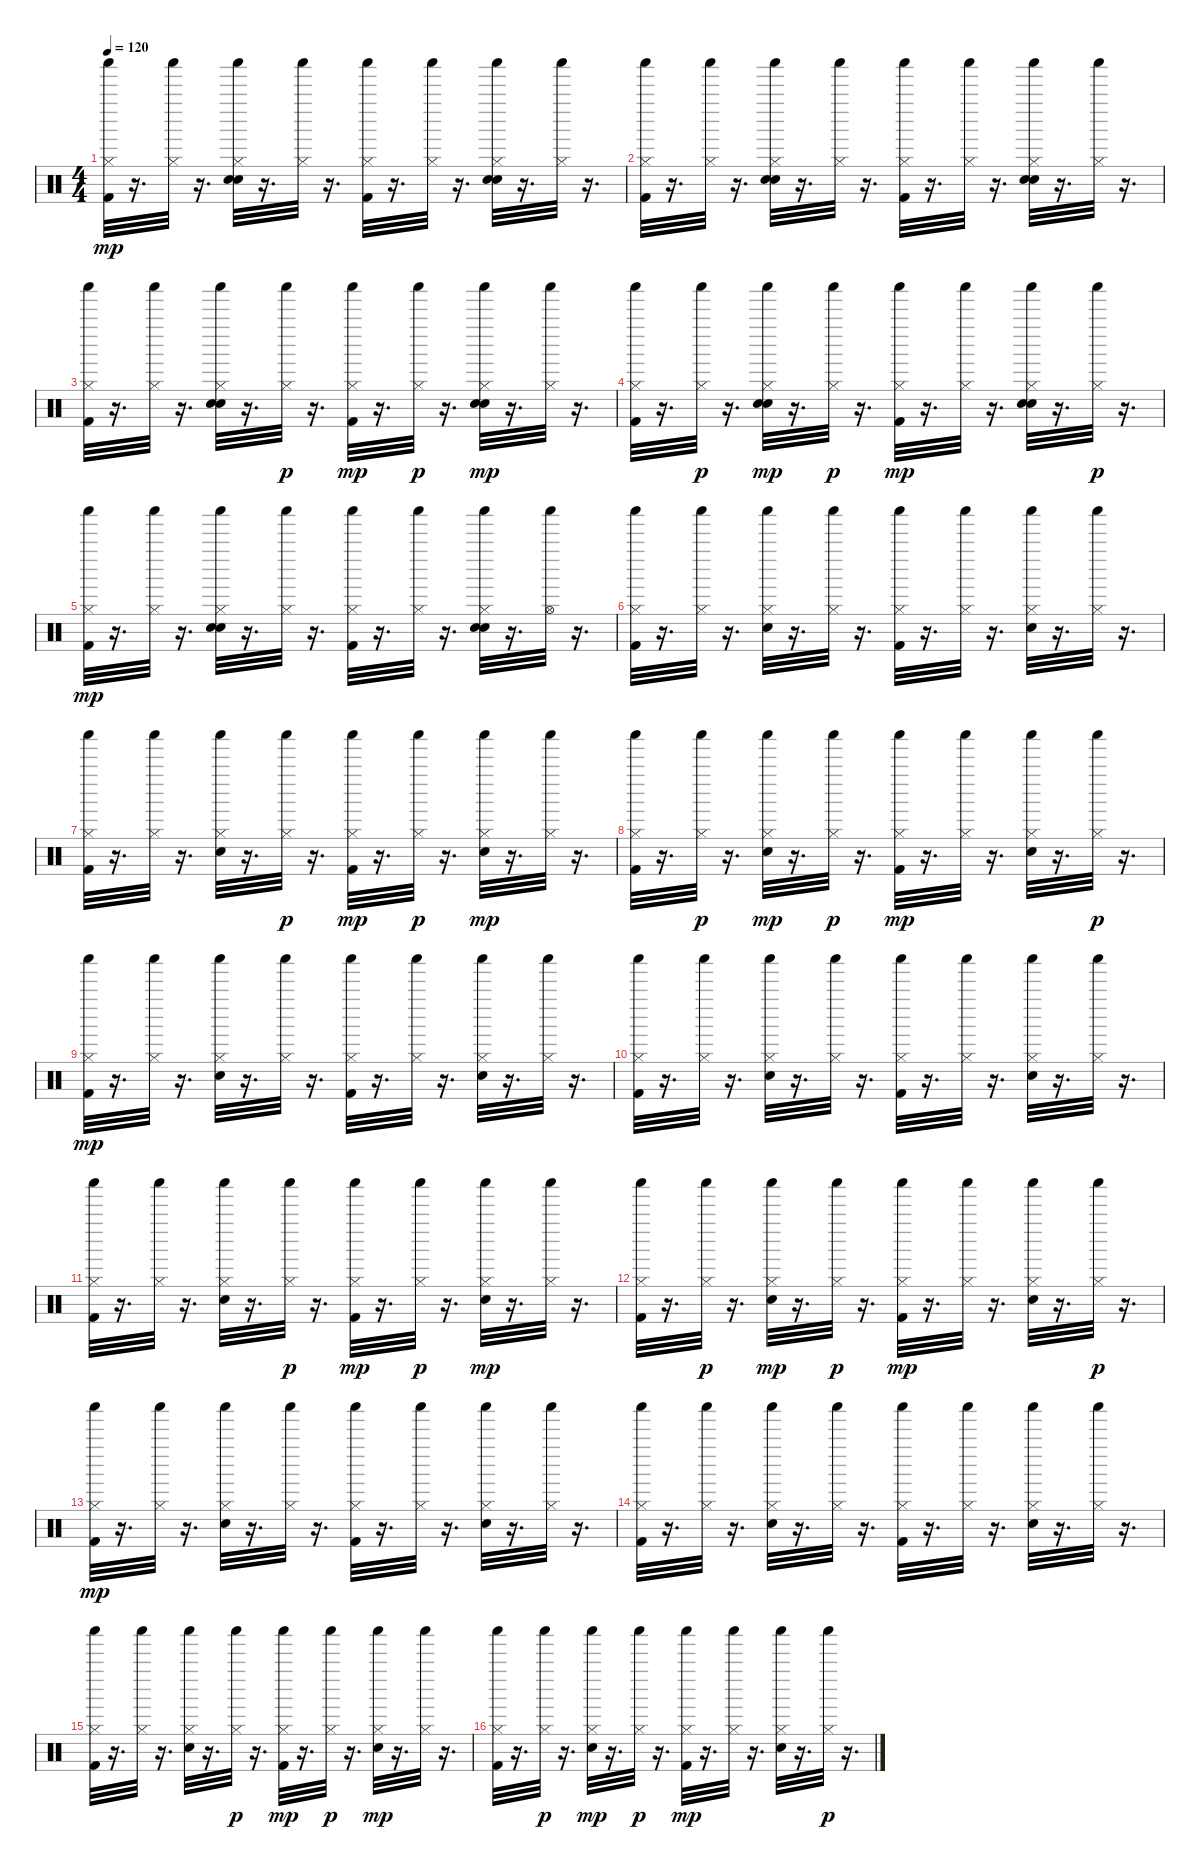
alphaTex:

\track "" {instrument percussion}
\staff {score}
\articulation defaults
\ts (4 4)
\tempo 120
\clef neutral
\ks c
("Kick (hit) 2" "Hi-Hat (closed)" "Shaker (hit)").32{dy mp} r.16{d} ("Hi-Hat (closed)" "Shaker (hit)").32 r.16{d} ("Hand Clap (hit)" "Electric Snare (hit)" "Hi-Hat (closed)" "Shaker (hit)").32 r.16{d} ("Hi-Hat (closed)" "Shaker (hit)").32 r.16{d} ("Kick (hit) 2" "Hi-Hat (closed)" "Shaker (hit)").32 r.16{d} ("Hi-Hat (closed)" "Shaker (hit)").32 r.16{d} ("Hand Clap (hit)" "Electric Snare (hit)" "Hi-Hat (closed)" "Shaker (hit)").32 r.16{d} ("Hi-Hat (closed)" "Shaker (hit)").32 r.16{d} |
("Kick (hit) 2" "Hi-Hat (closed)" "Shaker (hit)").32 r.16{d} ("Hi-Hat (closed)" "Shaker (hit)").32 r.16{d} ("Hand Clap (hit)" "Electric Snare (hit)" "Hi-Hat (closed)" "Shaker (hit)").32 r.16{d} ("Hi-Hat (closed)" "Shaker (hit)").32 r.16{d} ("Kick (hit) 2" "Hi-Hat (closed)" "Shaker (hit)").32 r.16{d} ("Hi-Hat (closed)" "Shaker (hit)").32 r.16{d} ("Hand Clap (hit)" "Electric Snare (hit)" "Hi-Hat (closed)" "Shaker (hit)").32 r.16{d} ("Hi-Hat (closed)" "Shaker (hit)").32 r.16{d} |
("Kick (hit) 2" "Hi-Hat (closed)" "Shaker (hit)").32 r.16{d} ("Hi-Hat (closed)" "Shaker (hit)").32 r.16{d} ("Hand Clap (hit)" "Electric Snare (hit)" "Hi-Hat (closed)" "Shaker (hit)").32 r.16{d} ("Hi-Hat (closed)" "Shaker (hit)").32{dy p} r.16{d} ("Kick (hit) 2" "Hi-Hat (closed)" "Shaker (hit)").32{dy mp} r.16{d} ("Hi-Hat (closed)" "Shaker (hit)").32{dy p} r.16{d} ("Hand Clap (hit)" "Electric Snare (hit)" "Hi-Hat (closed)" "Shaker (hit)").32{dy mp} r.16{d} ("Hi-Hat (closed)" "Shaker (hit)").32 r.16{d} |
("Kick (hit) 2" "Hi-Hat (closed)" "Shaker (hit)").32 r.16{d} ("Hi-Hat (closed)" "Shaker (hit)").32{dy p} r.16{d} ("Hand Clap (hit)" "Electric Snare (hit)" "Hi-Hat (closed)" "Shaker (hit)").32{dy mp} r.16{d} ("Hi-Hat (closed)" "Shaker (hit)").32{dy p} r.16{d} ("Kick (hit) 2" "Hi-Hat (closed)" "Shaker (hit)").32{dy mp} r.16{d} ("Hi-Hat (closed)" "Shaker (hit)").32 r.16{d} ("Hand Clap (hit)" "Electric Snare (hit)" "Hi-Hat (closed)" "Shaker (hit)").32 r.16{d} ("Hi-Hat (closed)" "Shaker (hit)").32{dy p} r.16{d} |
("Kick (hit) 2" "Hi-Hat (closed)" "Shaker (hit)").32{dy mp} r.16{d} ("Hi-Hat (closed)" "Shaker (hit)").32 r.16{d} ("Hand Clap (hit)" "Electric Snare (hit)" "Hi-Hat (closed)" "Shaker (hit)").32 r.16{d} ("Hi-Hat (closed)" "Shaker (hit)").32 r.16{d} ("Kick (hit) 2" "Hi-Hat (closed)" "Shaker (hit)").32 r.16{d} ("Hi-Hat (closed)" "Shaker (hit)").32 r.16{d} ("Hand Clap (hit)" "Electric Snare (hit)" "Hi-Hat (closed)" "Shaker (hit)").32 r.16{d} ("Hi-Hat (open)" "Shaker (hit)").32 r.16{d} |
("Kick (hit) 2" "Hi-Hat (closed)" "Shaker (hit)").32 r.16{d} ("Hi-Hat (closed)" "Shaker (hit)").32 r.16{d} ("Electric Snare (hit)" "Hi-Hat (closed)" "Shaker (hit)").32 r.16{d} ("Hi-Hat (closed)" "Shaker (hit)").32 r.16{d} ("Kick (hit) 2" "Hi-Hat (closed)" "Shaker (hit)").32 r.16{d} ("Hi-Hat (closed)" "Shaker (hit)").32 r.16{d} ("Electric Snare (hit)" "Hi-Hat (closed)" "Shaker (hit)").32 r.16{d} ("Hi-Hat (closed)" "Shaker (hit)").32 r.16{d} |
("Kick (hit) 2" "Hi-Hat (closed)" "Shaker (hit)").32 r.16{d} ("Hi-Hat (closed)" "Shaker (hit)").32 r.16{d} ("Electric Snare (hit)" "Hi-Hat (closed)" "Shaker (hit)").32 r.16{d} ("Hi-Hat (closed)" "Shaker (hit)").32{dy p} r.16{d} ("Kick (hit) 2" "Hi-Hat (closed)" "Shaker (hit)").32{dy mp} r.16{d} ("Hi-Hat (closed)" "Shaker (hit)").32{dy p} r.16{d} ("Electric Snare (hit)" "Hi-Hat (closed)" "Shaker (hit)").32{dy mp} r.16{d} ("Hi-Hat (closed)" "Shaker (hit)").32 r.16{d} |
("Kick (hit) 2" "Hi-Hat (closed)" "Shaker (hit)").32 r.16{d} ("Hi-Hat (closed)" "Shaker (hit)").32{dy p} r.16{d} ("Electric Snare (hit)" "Hi-Hat (closed)" "Shaker (hit)").32{dy mp} r.16{d} ("Hi-Hat (closed)" "Shaker (hit)").32{dy p} r.16{d} ("Kick (hit) 2" "Hi-Hat (closed)" "Shaker (hit)").32{dy mp} r.16{d} ("Hi-Hat (closed)" "Shaker (hit)").32 r.16{d} ("Electric Snare (hit)" "Hi-Hat (closed)" "Shaker (hit)").32 r.16{d} ("Hi-Hat (closed)" "Shaker (hit)").32{dy p} r.16{d} |
("Kick (hit) 2" "Hi-Hat (closed)" "Shaker (hit)").32{dy mp} r.16{d} ("Hi-Hat (closed)" "Shaker (hit)").32 r.16{d} ("Electric Snare (hit)" "Hi-Hat (closed)" "Shaker (hit)").32 r.16{d} ("Hi-Hat (closed)" "Shaker (hit)").32 r.16{d} ("Kick (hit) 2" "Hi-Hat (closed)" "Shaker (hit)").32 r.16{d} ("Hi-Hat (closed)" "Shaker (hit)").32 r.16{d} ("Electric Snare (hit)" "Hi-Hat (closed)" "Shaker (hit)").32 r.16{d} ("Hi-Hat (closed)" "Shaker (hit)").32 r.16{d} |
("Kick (hit) 2" "Hi-Hat (closed)" "Shaker (hit)").32 r.16{d} ("Hi-Hat (closed)" "Shaker (hit)").32 r.16{d} ("Electric Snare (hit)" "Hi-Hat (closed)" "Shaker (hit)").32 r.16{d} ("Hi-Hat (closed)" "Shaker (hit)").32 r.16{d} ("Kick (hit) 2" "Hi-Hat (closed)" "Shaker (hit)").32 r.16{d} ("Hi-Hat (closed)" "Shaker (hit)").32 r.16{d} ("Electric Snare (hit)" "Hi-Hat (closed)" "Shaker (hit)").32 r.16{d} ("Hi-Hat (closed)" "Shaker (hit)").32 r.16{d} |
("Kick (hit) 2" "Hi-Hat (closed)" "Shaker (hit)").32 r.16{d} ("Hi-Hat (closed)" "Shaker (hit)").32 r.16{d} ("Electric Snare (hit)" "Hi-Hat (closed)" "Shaker (hit)").32 r.16{d} ("Hi-Hat (closed)" "Shaker (hit)").32{dy p} r.16{d} ("Kick (hit) 2" "Hi-Hat (closed)" "Shaker (hit)").32{dy mp} r.16{d} ("Hi-Hat (closed)" "Shaker (hit)").32{dy p} r.16{d} ("Electric Snare (hit)" "Hi-Hat (closed)" "Shaker (hit)").32{dy mp} r.16{d} ("Hi-Hat (closed)" "Shaker (hit)").32 r.16{d} |
("Kick (hit) 2" "Hi-Hat (closed)" "Shaker (hit)").32 r.16{d} ("Hi-Hat (closed)" "Shaker (hit)").32{dy p} r.16{d} ("Electric Snare (hit)" "Hi-Hat (closed)" "Shaker (hit)").32{dy mp} r.16{d} ("Hi-Hat (closed)" "Shaker (hit)").32{dy p} r.16{d} ("Kick (hit) 2" "Hi-Hat (closed)" "Shaker (hit)").32{dy mp} r.16{d} ("Hi-Hat (closed)" "Shaker (hit)").32 r.16{d} ("Electric Snare (hit)" "Hi-Hat (closed)" "Shaker (hit)").32 r.16{d} ("Hi-Hat (closed)" "Shaker (hit)").32{dy p} r.16{d} |
("Kick (hit) 2" "Hi-Hat (closed)" "Shaker (hit)").32{dy mp} r.16{d} ("Hi-Hat (closed)" "Shaker (hit)").32 r.16{d} ("Electric Snare (hit)" "Hi-Hat (closed)" "Shaker (hit)").32 r.16{d} ("Hi-Hat (closed)" "Shaker (hit)").32 r.16{d} ("Kick (hit) 2" "Hi-Hat (closed)" "Shaker (hit)").32 r.16{d} ("Hi-Hat (closed)" "Shaker (hit)").32 r.16{d} ("Electric Snare (hit)" "Hi-Hat (closed)" "Shaker (hit)").32 r.16{d} ("Hi-Hat (closed)" "Shaker (hit)").32 r.16{d} |
("Kick (hit) 2" "Hi-Hat (closed)" "Shaker (hit)").32 r.16{d} ("Hi-Hat (closed)" "Shaker (hit)").32 r.16{d} ("Electric Snare (hit)" "Hi-Hat (closed)" "Shaker (hit)").32 r.16{d} ("Hi-Hat (closed)" "Shaker (hit)").32 r.16{d} ("Kick (hit) 2" "Hi-Hat (closed)" "Shaker (hit)").32 r.16{d} ("Hi-Hat (closed)" "Shaker (hit)").32 r.16{d} ("Electric Snare (hit)" "Hi-Hat (closed)" "Shaker (hit)").32 r.16{d} ("Hi-Hat (closed)" "Shaker (hit)").32 r.16{d} |
("Kick (hit) 2" "Hi-Hat (closed)" "Shaker (hit)").32 r.16{d} ("Hi-Hat (closed)" "Shaker (hit)").32 r.16{d} ("Electric Snare (hit)" "Hi-Hat (closed)" "Shaker (hit)").32 r.16{d} ("Hi-Hat (closed)" "Shaker (hit)").32{dy p} r.16{d} ("Kick (hit) 2" "Hi-Hat (closed)" "Shaker (hit)").32{dy mp} r.16{d} ("Hi-Hat (closed)" "Shaker (hit)").32{dy p} r.16{d} ("Electric Snare (hit)" "Hi-Hat (closed)" "Shaker (hit)").32{dy mp} r.16{d} ("Hi-Hat (closed)" "Shaker (hit)").32 r.16{d} |
("Kick (hit) 2" "Hi-Hat (closed)" "Shaker (hit)").32 r.16{d} ("Hi-Hat (closed)" "Shaker (hit)").32{dy p} r.16{d} ("Electric Snare (hit)" "Hi-Hat (closed)" "Shaker (hit)").32{dy mp} r.16{d} ("Hi-Hat (closed)" "Shaker (hit)").32{dy p} r.16{d} ("Kick (hit) 2" "Hi-Hat (closed)" "Shaker (hit)").32{dy mp} r.16{d} ("Hi-Hat (closed)" "Shaker (hit)").32 r.16{d} ("Electric Snare (hit)" "Hi-Hat (closed)" "Shaker (hit)").32 r.16{d} ("Hi-Hat (closed)" "Shaker (hit)").32{dy p} r.16{d}
